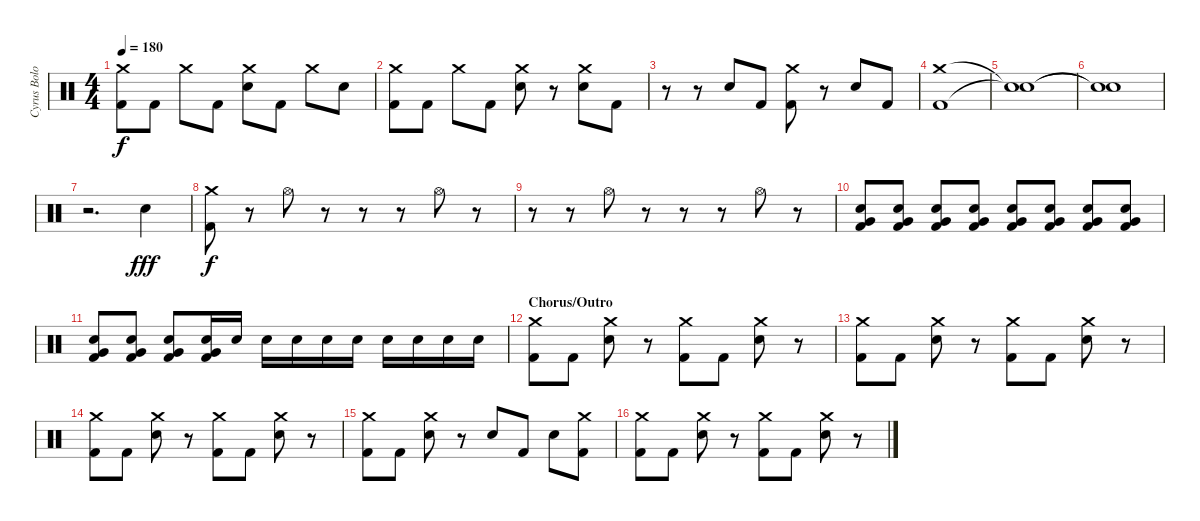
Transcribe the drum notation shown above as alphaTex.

\track ("Cyrus Bolooki - Drums" "Cyrus Bolo") {instrument percussion}
\staff {score}
\articulation defaults
\ts (4 4)
\tempo 180
\clef neutral
\ks c
("Crash medium (hit)" "Kick (hit) 2").8{dy f} "Kick (hit) 2".8 "Crash medium (hit)".8 "Kick (hit) 2".8 ("Crash medium (hit)" "Electric Snare (hit)").8 "Kick (hit) 2".8 "Crash medium (hit)".8 "Electric Snare (hit)".8 |
("Crash medium (hit)" "Kick (hit) 2").8 "Kick (hit) 2".8 "Crash medium (hit)".8 "Kick (hit) 2".8 ("Crash medium (hit)" "Electric Snare (hit)").8 r.8 ("Crash medium (hit)" "Electric Snare (hit)").8 "Kick (hit) 2".8 |
r.8 r.8 "Electric Snare (hit)".8 "Kick (hit) 2".8 ("Crash medium (hit)" "Kick (hit) 2").8 r.8 "Electric Snare (hit)".8 "Kick (hit) 2".8 |
("Crash medium (hit)" "Kick (hit) 2").1 |
("Snare (hit)"{t} "Snare (hit)"{t}).1 |
("Snare (hit)"{t} "Snare (hit)"{t}).1 |
r.2{d} "Electric Snare (hit)".4{dy fff} |
("Crash medium (hit)" "Kick (hit) 2").8{dy f} r.8 "Hi-Hat (open)".8 r.8 r.8 r.8 "Hi-Hat (open)".8 r.8 |
r.8 r.8 "Hi-Hat (open)".8 r.8 r.8 r.8 "Hi-Hat (open)".8 r.8 |
("Very Low Tom (hit)" "Electric Snare (hit)" "Kick (hit) 2").8 ("Very Low Tom (hit)" "Electric Snare (hit)" "Kick (hit) 2").8 ("Very Low Tom (hit)" "Electric Snare (hit)" "Kick (hit) 2").8 ("Very Low Tom (hit)" "Electric Snare (hit)" "Kick (hit) 2").8 ("Very Low Tom (hit)" "Electric Snare (hit)" "Kick (hit) 2").8 ("Very Low Tom (hit)" "Electric Snare (hit)" "Kick (hit) 2").8 ("Very Low Tom (hit)" "Electric Snare (hit)" "Kick (hit) 2").8 ("Very Low Tom (hit)" "Electric Snare (hit)" "Kick (hit) 2").8 |
("Very Low Tom (hit)" "Electric Snare (hit)" "Kick (hit) 2").8 ("Very Low Tom (hit)" "Electric Snare (hit)" "Kick (hit) 2").8 ("Very Low Tom (hit)" "Electric Snare (hit)" "Kick (hit) 2").8 ("Very Low Tom (hit)" "Electric Snare (hit)" "Kick (hit) 2").16 "Electric Snare (hit)".16 "Electric Snare (hit)".16 "Electric Snare (hit)".16 "Electric Snare (hit)".16 "Electric Snare (hit)".16 "Electric Snare (hit)".16 "Electric Snare (hit)".16 "Electric Snare (hit)".16 "Electric Snare (hit)".16 |
\section ("" "Chorus/Outro")
("Crash medium (hit)" "Kick (hit) 2").8 "Kick (hit) 2".8 ("Crash medium (hit)" "Electric Snare (hit)").8 r.8 ("Crash medium (hit)" "Kick (hit) 2").8 "Kick (hit) 2".8 ("Crash medium (hit)" "Electric Snare (hit)").8 r.8 |
("Crash medium (hit)" "Kick (hit) 2").8 "Kick (hit) 2".8 ("Crash medium (hit)" "Electric Snare (hit)").8 r.8 ("Crash medium (hit)" "Kick (hit) 2").8 "Kick (hit) 2".8 ("Crash medium (hit)" "Electric Snare (hit)").8 r.8 |
("Crash medium (hit)" "Kick (hit) 2").8 "Kick (hit) 2".8 ("Crash medium (hit)" "Electric Snare (hit)").8 r.8 ("Crash medium (hit)" "Kick (hit) 2").8 "Kick (hit) 2".8 ("Crash medium (hit)" "Electric Snare (hit)").8 r.8 |
("Crash medium (hit)" "Kick (hit) 2").8 "Kick (hit) 2".8 ("Crash medium (hit)" "Electric Snare (hit)").8 r.8 "Electric Snare (hit)".8 "Kick (hit) 2".8 "Electric Snare (hit)".8 ("Crash medium (hit)" "Kick (hit) 2").8 |
("Crash medium (hit)" "Kick (hit) 2").8 "Kick (hit) 2".8 ("Crash medium (hit)" "Electric Snare (hit)").8 r.8 ("Crash medium (hit)" "Kick (hit) 2").8 "Kick (hit) 2".8 ("Crash medium (hit)" "Electric Snare (hit)").8 r.8
